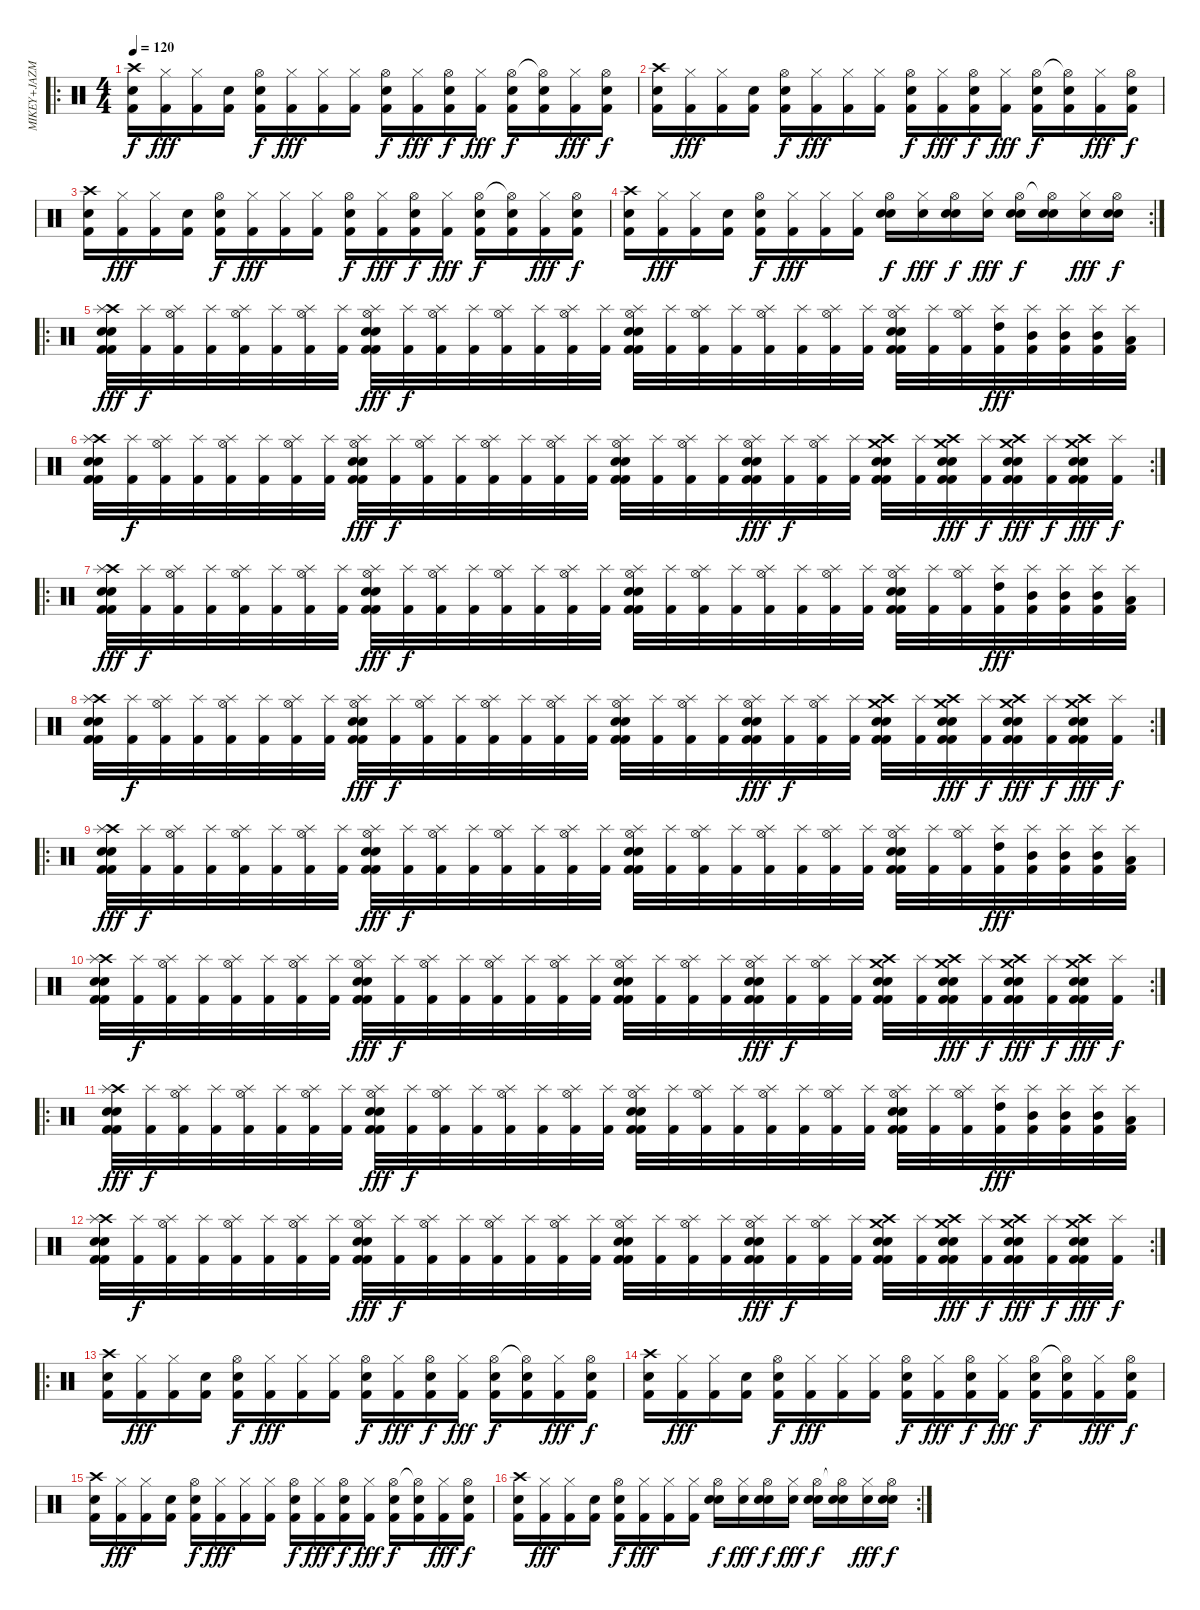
\track ("MIKEY+JAZMO" "MIKEY+JAZM") {instrument percussion}
\staff {score}
\articulation defaults
\ro
\ts (4 4)
\tempo 120
\clef neutral
\ks c
("Crash high (hit)" "Electric Snare (hit)" "Kick (hit) 2").16{dy f} ("Hi-Hat (closed)" "Kick (hit) 2").16{dy fff} ("Hi-Hat (closed)" "Kick (hit) 2").16 ("Snare (hit)" "Kick (hit) 2").16 ("Hi-Hat (open)" "Electric Snare (hit)" "Kick (hit) 2").16{dy f} ("Hi-Hat (closed)" "Kick (hit) 2").16{dy fff} ("Hi-Hat (closed)" "Kick (hit) 2").16 ("Hi-Hat (closed)" "Kick (hit) 2").16 ("Hi-Hat (open)" "Electric Snare (hit)" "Kick (hit) 2").16{dy f} ("Hi-Hat (closed)" "Kick (hit) 2").16{dy fff} ("Hi-Hat (open)" "Electric Snare (hit)" "Kick (hit) 2").16{dy f} ("Hi-Hat (closed)" "Kick (hit) 2").16{dy fff} ("Hi-Hat (open)" "Electric Snare (hit)" "Kick (hit) 2").16{dy f} ("Hi-Hat (open)"{t} "Electric Snare (hit)" "Kick (hit) 2").16 ("Hi-Hat (closed)" "Kick (hit) 2").16{dy fff} ("Hi-Hat (open)" "Electric Snare (hit)" "Kick (hit) 2").16{dy f} |
("Crash high (hit)" "Electric Snare (hit)" "Kick (hit) 2").16 ("Hi-Hat (closed)" "Kick (hit) 2").16{dy fff} ("Hi-Hat (closed)" "Kick (hit) 2").16 ("Snare (hit)" "Kick (hit) 2").16 ("Hi-Hat (open)" "Electric Snare (hit)" "Kick (hit) 2").16{dy f} ("Hi-Hat (closed)" "Kick (hit) 2").16{dy fff} ("Hi-Hat (closed)" "Kick (hit) 2").16 ("Hi-Hat (closed)" "Kick (hit) 2").16 ("Hi-Hat (open)" "Electric Snare (hit)" "Kick (hit) 2").16{dy f} ("Hi-Hat (closed)" "Kick (hit) 2").16{dy fff} ("Hi-Hat (open)" "Electric Snare (hit)" "Kick (hit) 2").16{dy f} ("Hi-Hat (closed)" "Kick (hit) 2").16{dy fff} ("Hi-Hat (open)" "Electric Snare (hit)" "Kick (hit) 2").16{dy f} ("Hi-Hat (open)"{t} "Electric Snare (hit)" "Kick (hit) 2").16 ("Hi-Hat (closed)" "Kick (hit) 2").16{dy fff} ("Hi-Hat (open)" "Electric Snare (hit)" "Kick (hit) 2").16{dy f} |
("Crash high (hit)" "Electric Snare (hit)" "Kick (hit) 2").16 ("Hi-Hat (closed)" "Kick (hit) 2").16{dy fff} ("Hi-Hat (closed)" "Kick (hit) 2").16 ("Snare (hit)" "Kick (hit) 2").16 ("Hi-Hat (open)" "Electric Snare (hit)" "Kick (hit) 2").16{dy f} ("Hi-Hat (closed)" "Kick (hit) 2").16{dy fff} ("Hi-Hat (closed)" "Kick (hit) 2").16 ("Hi-Hat (closed)" "Kick (hit) 2").16 ("Hi-Hat (open)" "Electric Snare (hit)" "Kick (hit) 2").16{dy f} ("Hi-Hat (closed)" "Kick (hit) 2").16{dy fff} ("Hi-Hat (open)" "Electric Snare (hit)" "Kick (hit) 2").16{dy f} ("Hi-Hat (closed)" "Kick (hit) 2").16{dy fff} ("Hi-Hat (open)" "Electric Snare (hit)" "Kick (hit) 2").16{dy f} ("Hi-Hat (open)"{t} "Electric Snare (hit)" "Kick (hit) 2").16 ("Hi-Hat (closed)" "Kick (hit) 2").16{dy fff} ("Hi-Hat (open)" "Electric Snare (hit)" "Kick (hit) 2").16{dy f} |
\rc 2
("Crash high (hit)" "Electric Snare (hit)" "Kick (hit) 2").16 ("Hi-Hat (closed)" "Kick (hit) 2").16{dy fff} ("Hi-Hat (closed)" "Kick (hit) 2").16 ("Snare (hit)" "Kick (hit) 2").16 ("Hi-Hat (open)" "Electric Snare (hit)" "Kick (hit) 2").16{dy f} ("Hi-Hat (closed)" "Kick (hit) 2").16{dy fff} ("Hi-Hat (closed)" "Kick (hit) 2").16 ("Hi-Hat (closed)" "Kick (hit) 2").16 ("Hi-Hat (open)" "Electric Snare (hit)" "Snare (hit) 2").16{dy f} ("Hi-Hat (closed)" "Snare (hit) 2").16{dy fff} ("Hi-Hat (open)" "Electric Snare (hit)" "Snare (hit) 2").16{dy f} ("Hi-Hat (closed)" "Snare (hit) 2").16{dy fff} ("Hi-Hat (open)" "Electric Snare (hit)" "Snare (hit) 2").16{dy f} ("Hi-Hat (open)"{t} "Electric Snare (hit)" "Snare (hit) 2").16 ("Hi-Hat (closed)" "Snare (hit) 2").16{dy fff} ("Hi-Hat (open)" "Electric Snare (hit)" "Snare (hit) 2").16{dy f} |
\ro
("Crash high (hit)" "Splash (hit)" "Electric Snare (hit)" "Electric Snare (hit)" "Kick (hit) 2" "Kick (hit) 2").32{dy fff} ("Splash (hit)" "Kick (hit) 2").32{dy f} ("Hi-Hat (open)" "Splash (hit)" "Kick (hit) 2").32 ("Splash (hit)" "Kick (hit) 2").32 ("Hi-Hat (open)" "Splash (hit)" "Kick (hit) 2").32 ("Splash (hit)" "Kick (hit) 2").32 ("Hi-Hat (open)" "Splash (hit)" "Kick (hit) 2").32 ("Splash (hit)" "Kick (hit) 2").32 ("Hi-Hat (open)" "Splash (hit)" "Electric Snare (hit)" "Electric Snare (hit)" "Kick (hit) 2" "Kick (hit) 2").32{dy fff} ("Splash (hit)" "Kick (hit) 2").32{dy f} ("Hi-Hat (open)" "Splash (hit)" "Kick (hit) 2").32 ("Splash (hit)" "Kick (hit) 2").32 ("Hi-Hat (open)" "Splash (hit)" "Kick (hit) 2").32 ("Splash (hit)" "Kick (hit) 2").32 ("Hi-Hat (open)" "Splash (hit)" "Kick (hit) 2").32 ("Splash (hit)" "Kick (hit) 2").32 ("Hi-Hat (open)" "Splash (hit)" "Electric Snare (hit)" "Electric Snare (hit)" "Kick (hit) 2" "Kick (hit) 2").32 ("Splash (hit)" "Kick (hit) 2").32 ("Hi-Hat (open)" "Splash (hit)" "Kick (hit) 2").32 ("Splash (hit)" "Kick (hit) 2").32 ("Hi-Hat (open)" "Splash (hit)" "Kick (hit) 2").32 ("Splash (hit)" "Kick (hit) 2").32 ("Hi-Hat (open)" "Splash (hit)" "Kick (hit) 2").32 ("Splash (hit)" "Kick (hit) 2").32 ("Hi-Hat (open)" "Splash (hit)" "Electric Snare (hit)" "Electric Snare (hit)" "Kick (hit) 2" "Kick (hit) 2").32 ("Splash (hit)" "Kick (hit) 2").32 ("Hi-Hat (open)" "Splash (hit)" "Kick (hit) 2").32 ("High Tom (hit)" "Splash (hit)" "Kick (hit) 2").32{dy fff} ("Mid Tom (hit)" "Splash (hit)" "Kick (hit) 2").32 ("Mid Tom (hit)" "Splash (hit)" "Kick (hit) 2").32 ("Mid Tom (hit)" "Splash (hit)" "Kick (hit) 2").32 ("Low Tom (hit)" "Splash (hit)" "Kick (hit) 2").32 |
\rc 2
("Crash high (hit)" "Splash (hit)" "Electric Snare (hit)" "Electric Snare (hit)" "Kick (hit) 2" "Kick (hit) 2").32 ("Splash (hit)" "Kick (hit) 2").32{dy f} ("Hi-Hat (open)" "Splash (hit)" "Kick (hit) 2").32 ("Splash (hit)" "Kick (hit) 2").32 ("Hi-Hat (open)" "Splash (hit)" "Kick (hit) 2").32 ("Splash (hit)" "Kick (hit) 2").32 ("Hi-Hat (open)" "Splash (hit)" "Kick (hit) 2").32 ("Splash (hit)" "Kick (hit) 2").32 ("Hi-Hat (open)" "Splash (hit)" "Electric Snare (hit)" "Electric Snare (hit)" "Kick (hit) 2" "Kick (hit) 2").32{dy fff} ("Splash (hit)" "Kick (hit) 2").32{dy f} ("Hi-Hat (open)" "Splash (hit)" "Kick (hit) 2").32 ("Splash (hit)" "Kick (hit) 2").32 ("Hi-Hat (open)" "Splash (hit)" "Kick (hit) 2").32 ("Splash (hit)" "Kick (hit) 2").32 ("Hi-Hat (open)" "Splash (hit)" "Kick (hit) 2").32 ("Splash (hit)" "Kick (hit) 2").32 ("Hi-Hat (open)" "Splash (hit)" "Electric Snare (hit)" "Electric Snare (hit)" "Kick (hit) 2" "Kick (hit) 2").32 ("Splash (hit)" "Kick (hit) 2").32 ("Hi-Hat (open)" "Splash (hit)" "Kick (hit) 2").32 ("Splash (hit)" "Kick (hit) 2").32 ("Hi-Hat (open)" "Splash (hit)" "Electric Snare (hit)" "Electric Snare (hit)" "Kick (hit) 2" "Kick (hit) 2").32{dy fff} ("Splash (hit)" "Kick (hit) 2").32{dy f} ("Hi-Hat (open)" "Splash (hit)" "Kick (hit) 2").32 ("Splash (hit)" "Kick (hit) 2").32 ("Crash medium (hit)" "Crash high (hit)" "Electric Snare (hit)" "Electric Snare (hit)" "Kick (hit) 2" "Kick (hit) 2").32 ("Splash (hit)" "Kick (hit) 2").32 ("Crash medium (hit)" "Crash high (hit)" "Electric Snare (hit)" "Electric Snare (hit)" "Kick (hit) 2" "Kick (hit) 2").32{dy fff} ("Splash (hit)" "Kick (hit) 2").32{dy f} ("Crash medium (hit)" "Crash high (hit)" "Electric Snare (hit)" "Electric Snare (hit)" "Kick (hit) 2" "Kick (hit) 2").32{dy fff} ("Splash (hit)" "Kick (hit) 2").32{dy f} ("Crash medium (hit)" "Crash high (hit)" "Electric Snare (hit)" "Electric Snare (hit)" "Kick (hit) 2" "Kick (hit) 2").32{dy fff} ("Splash (hit)" "Kick (hit) 2").32{dy f} |
\ro
("Crash high (hit)" "Splash (hit)" "Electric Snare (hit)" "Electric Snare (hit)" "Kick (hit) 2" "Kick (hit) 2").32{dy fff} ("Splash (hit)" "Kick (hit) 2").32{dy f} ("Hi-Hat (open)" "Splash (hit)" "Kick (hit) 2").32 ("Splash (hit)" "Kick (hit) 2").32 ("Hi-Hat (open)" "Splash (hit)" "Kick (hit) 2").32 ("Splash (hit)" "Kick (hit) 2").32 ("Hi-Hat (open)" "Splash (hit)" "Kick (hit) 2").32 ("Splash (hit)" "Kick (hit) 2").32 ("Hi-Hat (open)" "Splash (hit)" "Electric Snare (hit)" "Electric Snare (hit)" "Kick (hit) 2" "Kick (hit) 2").32{dy fff} ("Splash (hit)" "Kick (hit) 2").32{dy f} ("Hi-Hat (open)" "Splash (hit)" "Kick (hit) 2").32 ("Splash (hit)" "Kick (hit) 2").32 ("Hi-Hat (open)" "Splash (hit)" "Kick (hit) 2").32 ("Splash (hit)" "Kick (hit) 2").32 ("Hi-Hat (open)" "Splash (hit)" "Kick (hit) 2").32 ("Splash (hit)" "Kick (hit) 2").32 ("Hi-Hat (open)" "Splash (hit)" "Electric Snare (hit)" "Electric Snare (hit)" "Kick (hit) 2" "Kick (hit) 2").32 ("Splash (hit)" "Kick (hit) 2").32 ("Hi-Hat (open)" "Splash (hit)" "Kick (hit) 2").32 ("Splash (hit)" "Kick (hit) 2").32 ("Hi-Hat (open)" "Splash (hit)" "Kick (hit) 2").32 ("Splash (hit)" "Kick (hit) 2").32 ("Hi-Hat (open)" "Splash (hit)" "Kick (hit) 2").32 ("Splash (hit)" "Kick (hit) 2").32 ("Hi-Hat (open)" "Splash (hit)" "Electric Snare (hit)" "Electric Snare (hit)" "Kick (hit) 2" "Kick (hit) 2").32 ("Splash (hit)" "Kick (hit) 2").32 ("Hi-Hat (open)" "Splash (hit)" "Kick (hit) 2").32 ("High Tom (hit)" "Splash (hit)" "Kick (hit) 2").32{dy fff} ("Mid Tom (hit)" "Splash (hit)" "Kick (hit) 2").32 ("Mid Tom (hit)" "Splash (hit)" "Kick (hit) 2").32 ("Mid Tom (hit)" "Splash (hit)" "Kick (hit) 2").32 ("Low Tom (hit)" "Splash (hit)" "Kick (hit) 2").32 |
\rc 2
("Crash high (hit)" "Splash (hit)" "Electric Snare (hit)" "Electric Snare (hit)" "Kick (hit) 2" "Kick (hit) 2").32 ("Splash (hit)" "Kick (hit) 2").32{dy f} ("Hi-Hat (open)" "Splash (hit)" "Kick (hit) 2").32 ("Splash (hit)" "Kick (hit) 2").32 ("Hi-Hat (open)" "Splash (hit)" "Kick (hit) 2").32 ("Splash (hit)" "Kick (hit) 2").32 ("Hi-Hat (open)" "Splash (hit)" "Kick (hit) 2").32 ("Splash (hit)" "Kick (hit) 2").32 ("Hi-Hat (open)" "Splash (hit)" "Electric Snare (hit)" "Electric Snare (hit)" "Kick (hit) 2" "Kick (hit) 2").32{dy fff} ("Splash (hit)" "Kick (hit) 2").32{dy f} ("Hi-Hat (open)" "Splash (hit)" "Kick (hit) 2").32 ("Splash (hit)" "Kick (hit) 2").32 ("Hi-Hat (open)" "Splash (hit)" "Kick (hit) 2").32 ("Splash (hit)" "Kick (hit) 2").32 ("Hi-Hat (open)" "Splash (hit)" "Kick (hit) 2").32 ("Splash (hit)" "Kick (hit) 2").32 ("Hi-Hat (open)" "Splash (hit)" "Electric Snare (hit)" "Electric Snare (hit)" "Kick (hit) 2" "Kick (hit) 2").32 ("Splash (hit)" "Kick (hit) 2").32 ("Hi-Hat (open)" "Splash (hit)" "Kick (hit) 2").32 ("Splash (hit)" "Kick (hit) 2").32 ("Hi-Hat (open)" "Splash (hit)" "Electric Snare (hit)" "Electric Snare (hit)" "Kick (hit) 2" "Kick (hit) 2").32{dy fff} ("Splash (hit)" "Kick (hit) 2").32{dy f} ("Hi-Hat (open)" "Splash (hit)" "Kick (hit) 2").32 ("Splash (hit)" "Kick (hit) 2").32 ("Crash medium (hit)" "Crash high (hit)" "Electric Snare (hit)" "Electric Snare (hit)" "Kick (hit) 2" "Kick (hit) 2").32 ("Splash (hit)" "Kick (hit) 2").32 ("Crash medium (hit)" "Crash high (hit)" "Electric Snare (hit)" "Electric Snare (hit)" "Kick (hit) 2" "Kick (hit) 2").32{dy fff} ("Splash (hit)" "Kick (hit) 2").32{dy f} ("Crash medium (hit)" "Crash high (hit)" "Electric Snare (hit)" "Electric Snare (hit)" "Kick (hit) 2" "Kick (hit) 2").32{dy fff} ("Splash (hit)" "Kick (hit) 2").32{dy f} ("Crash medium (hit)" "Crash high (hit)" "Electric Snare (hit)" "Electric Snare (hit)" "Kick (hit) 2" "Kick (hit) 2").32{dy fff} ("Splash (hit)" "Kick (hit) 2").32{dy f} |
\ro
("Crash high (hit)" "Splash (hit)" "Electric Snare (hit)" "Electric Snare (hit)" "Kick (hit) 2" "Kick (hit) 2").32{dy fff} ("Splash (hit)" "Kick (hit) 2").32{dy f} ("Hi-Hat (open)" "Splash (hit)" "Kick (hit) 2").32 ("Splash (hit)" "Kick (hit) 2").32 ("Hi-Hat (open)" "Splash (hit)" "Kick (hit) 2").32 ("Splash (hit)" "Kick (hit) 2").32 ("Hi-Hat (open)" "Splash (hit)" "Kick (hit) 2").32 ("Splash (hit)" "Kick (hit) 2").32 ("Hi-Hat (open)" "Splash (hit)" "Electric Snare (hit)" "Electric Snare (hit)" "Kick (hit) 2" "Kick (hit) 2").32{dy fff} ("Splash (hit)" "Kick (hit) 2").32{dy f} ("Hi-Hat (open)" "Splash (hit)" "Kick (hit) 2").32 ("Splash (hit)" "Kick (hit) 2").32 ("Hi-Hat (open)" "Splash (hit)" "Kick (hit) 2").32 ("Splash (hit)" "Kick (hit) 2").32 ("Hi-Hat (open)" "Splash (hit)" "Kick (hit) 2").32 ("Splash (hit)" "Kick (hit) 2").32 ("Hi-Hat (open)" "Splash (hit)" "Electric Snare (hit)" "Electric Snare (hit)" "Kick (hit) 2" "Kick (hit) 2").32 ("Splash (hit)" "Kick (hit) 2").32 ("Hi-Hat (open)" "Splash (hit)" "Kick (hit) 2").32 ("Splash (hit)" "Kick (hit) 2").32 ("Hi-Hat (open)" "Splash (hit)" "Kick (hit) 2").32 ("Splash (hit)" "Kick (hit) 2").32 ("Hi-Hat (open)" "Splash (hit)" "Kick (hit) 2").32 ("Splash (hit)" "Kick (hit) 2").32 ("Hi-Hat (open)" "Splash (hit)" "Electric Snare (hit)" "Electric Snare (hit)" "Kick (hit) 2" "Kick (hit) 2").32 ("Splash (hit)" "Kick (hit) 2").32 ("Hi-Hat (open)" "Splash (hit)" "Kick (hit) 2").32 ("High Tom (hit)" "Splash (hit)" "Kick (hit) 2").32{dy fff} ("Mid Tom (hit)" "Splash (hit)" "Kick (hit) 2").32 ("Mid Tom (hit)" "Splash (hit)" "Kick (hit) 2").32 ("Mid Tom (hit)" "Splash (hit)" "Kick (hit) 2").32 ("Low Tom (hit)" "Splash (hit)" "Kick (hit) 2").32 |
\rc 2
("Crash high (hit)" "Splash (hit)" "Electric Snare (hit)" "Electric Snare (hit)" "Kick (hit) 2" "Kick (hit) 2").32 ("Splash (hit)" "Kick (hit) 2").32{dy f} ("Hi-Hat (open)" "Splash (hit)" "Kick (hit) 2").32 ("Splash (hit)" "Kick (hit) 2").32 ("Hi-Hat (open)" "Splash (hit)" "Kick (hit) 2").32 ("Splash (hit)" "Kick (hit) 2").32 ("Hi-Hat (open)" "Splash (hit)" "Kick (hit) 2").32 ("Splash (hit)" "Kick (hit) 2").32 ("Hi-Hat (open)" "Splash (hit)" "Electric Snare (hit)" "Electric Snare (hit)" "Kick (hit) 2" "Kick (hit) 2").32{dy fff} ("Splash (hit)" "Kick (hit) 2").32{dy f} ("Hi-Hat (open)" "Splash (hit)" "Kick (hit) 2").32 ("Splash (hit)" "Kick (hit) 2").32 ("Hi-Hat (open)" "Splash (hit)" "Kick (hit) 2").32 ("Splash (hit)" "Kick (hit) 2").32 ("Hi-Hat (open)" "Splash (hit)" "Kick (hit) 2").32 ("Splash (hit)" "Kick (hit) 2").32 ("Hi-Hat (open)" "Splash (hit)" "Electric Snare (hit)" "Electric Snare (hit)" "Kick (hit) 2" "Kick (hit) 2").32 ("Splash (hit)" "Kick (hit) 2").32 ("Hi-Hat (open)" "Splash (hit)" "Kick (hit) 2").32 ("Splash (hit)" "Kick (hit) 2").32 ("Hi-Hat (open)" "Splash (hit)" "Electric Snare (hit)" "Electric Snare (hit)" "Kick (hit) 2" "Kick (hit) 2").32{dy fff} ("Splash (hit)" "Kick (hit) 2").32{dy f} ("Hi-Hat (open)" "Splash (hit)" "Kick (hit) 2").32 ("Splash (hit)" "Kick (hit) 2").32 ("Crash medium (hit)" "Crash high (hit)" "Electric Snare (hit)" "Electric Snare (hit)" "Kick (hit) 2" "Kick (hit) 2").32 ("Splash (hit)" "Kick (hit) 2").32 ("Crash medium (hit)" "Crash high (hit)" "Electric Snare (hit)" "Electric Snare (hit)" "Kick (hit) 2" "Kick (hit) 2").32{dy fff} ("Splash (hit)" "Kick (hit) 2").32{dy f} ("Crash medium (hit)" "Crash high (hit)" "Electric Snare (hit)" "Electric Snare (hit)" "Kick (hit) 2" "Kick (hit) 2").32{dy fff} ("Splash (hit)" "Kick (hit) 2").32{dy f} ("Crash medium (hit)" "Crash high (hit)" "Electric Snare (hit)" "Electric Snare (hit)" "Kick (hit) 2" "Kick (hit) 2").32{dy fff} ("Splash (hit)" "Kick (hit) 2").32{dy f} |
\ro
("Crash high (hit)" "Splash (hit)" "Electric Snare (hit)" "Electric Snare (hit)" "Kick (hit) 2" "Kick (hit) 2").32{dy fff} ("Splash (hit)" "Kick (hit) 2").32{dy f} ("Hi-Hat (open)" "Splash (hit)" "Kick (hit) 2").32 ("Splash (hit)" "Kick (hit) 2").32 ("Hi-Hat (open)" "Splash (hit)" "Kick (hit) 2").32 ("Splash (hit)" "Kick (hit) 2").32 ("Hi-Hat (open)" "Splash (hit)" "Kick (hit) 2").32 ("Splash (hit)" "Kick (hit) 2").32 ("Hi-Hat (open)" "Splash (hit)" "Electric Snare (hit)" "Electric Snare (hit)" "Kick (hit) 2" "Kick (hit) 2").32{dy fff} ("Splash (hit)" "Kick (hit) 2").32{dy f} ("Hi-Hat (open)" "Splash (hit)" "Kick (hit) 2").32 ("Splash (hit)" "Kick (hit) 2").32 ("Hi-Hat (open)" "Splash (hit)" "Kick (hit) 2").32 ("Splash (hit)" "Kick (hit) 2").32 ("Hi-Hat (open)" "Splash (hit)" "Kick (hit) 2").32 ("Splash (hit)" "Kick (hit) 2").32 ("Hi-Hat (open)" "Splash (hit)" "Electric Snare (hit)" "Electric Snare (hit)" "Kick (hit) 2" "Kick (hit) 2").32 ("Splash (hit)" "Kick (hit) 2").32 ("Hi-Hat (open)" "Splash (hit)" "Kick (hit) 2").32 ("Splash (hit)" "Kick (hit) 2").32 ("Hi-Hat (open)" "Splash (hit)" "Kick (hit) 2").32 ("Splash (hit)" "Kick (hit) 2").32 ("Hi-Hat (open)" "Splash (hit)" "Kick (hit) 2").32 ("Splash (hit)" "Kick (hit) 2").32 ("Hi-Hat (open)" "Splash (hit)" "Electric Snare (hit)" "Electric Snare (hit)" "Kick (hit) 2" "Kick (hit) 2").32 ("Splash (hit)" "Kick (hit) 2").32 ("Hi-Hat (open)" "Splash (hit)" "Kick (hit) 2").32 ("High Tom (hit)" "Splash (hit)" "Kick (hit) 2").32{dy fff} ("Mid Tom (hit)" "Splash (hit)" "Kick (hit) 2").32 ("Mid Tom (hit)" "Splash (hit)" "Kick (hit) 2").32 ("Mid Tom (hit)" "Splash (hit)" "Kick (hit) 2").32 ("Low Tom (hit)" "Splash (hit)" "Kick (hit) 2").32 |
\rc 2
("Crash high (hit)" "Splash (hit)" "Electric Snare (hit)" "Electric Snare (hit)" "Kick (hit) 2" "Kick (hit) 2").32 ("Splash (hit)" "Kick (hit) 2").32{dy f} ("Hi-Hat (open)" "Splash (hit)" "Kick (hit) 2").32 ("Splash (hit)" "Kick (hit) 2").32 ("Hi-Hat (open)" "Splash (hit)" "Kick (hit) 2").32 ("Splash (hit)" "Kick (hit) 2").32 ("Hi-Hat (open)" "Splash (hit)" "Kick (hit) 2").32 ("Splash (hit)" "Kick (hit) 2").32 ("Hi-Hat (open)" "Splash (hit)" "Electric Snare (hit)" "Electric Snare (hit)" "Kick (hit) 2" "Kick (hit) 2").32{dy fff} ("Splash (hit)" "Kick (hit) 2").32{dy f} ("Hi-Hat (open)" "Splash (hit)" "Kick (hit) 2").32 ("Splash (hit)" "Kick (hit) 2").32 ("Hi-Hat (open)" "Splash (hit)" "Kick (hit) 2").32 ("Splash (hit)" "Kick (hit) 2").32 ("Hi-Hat (open)" "Splash (hit)" "Kick (hit) 2").32 ("Splash (hit)" "Kick (hit) 2").32 ("Hi-Hat (open)" "Splash (hit)" "Electric Snare (hit)" "Electric Snare (hit)" "Kick (hit) 2" "Kick (hit) 2").32 ("Splash (hit)" "Kick (hit) 2").32 ("Hi-Hat (open)" "Splash (hit)" "Kick (hit) 2").32 ("Splash (hit)" "Kick (hit) 2").32 ("Hi-Hat (open)" "Splash (hit)" "Electric Snare (hit)" "Electric Snare (hit)" "Kick (hit) 2" "Kick (hit) 2").32{dy fff} ("Splash (hit)" "Kick (hit) 2").32{dy f} ("Hi-Hat (open)" "Splash (hit)" "Kick (hit) 2").32 ("Splash (hit)" "Kick (hit) 2").32 ("Crash medium (hit)" "Crash high (hit)" "Electric Snare (hit)" "Electric Snare (hit)" "Kick (hit) 2" "Kick (hit) 2").32 ("Splash (hit)" "Kick (hit) 2").32 ("Crash medium (hit)" "Crash high (hit)" "Electric Snare (hit)" "Electric Snare (hit)" "Kick (hit) 2" "Kick (hit) 2").32{dy fff} ("Splash (hit)" "Kick (hit) 2").32{dy f} ("Crash medium (hit)" "Crash high (hit)" "Electric Snare (hit)" "Electric Snare (hit)" "Kick (hit) 2" "Kick (hit) 2").32{dy fff} ("Splash (hit)" "Kick (hit) 2").32{dy f} ("Crash medium (hit)" "Crash high (hit)" "Electric Snare (hit)" "Electric Snare (hit)" "Kick (hit) 2" "Kick (hit) 2").32{dy fff} ("Splash (hit)" "Kick (hit) 2").32{dy f} |
\ro
("Crash high (hit)" "Electric Snare (hit)" "Kick (hit) 2").16 ("Hi-Hat (closed)" "Kick (hit) 2").16{dy fff} ("Hi-Hat (closed)" "Kick (hit) 2").16 ("Snare (hit)" "Kick (hit) 2").16 ("Hi-Hat (open)" "Electric Snare (hit)" "Kick (hit) 2").16{dy f} ("Hi-Hat (closed)" "Kick (hit) 2").16{dy fff} ("Hi-Hat (closed)" "Kick (hit) 2").16 ("Hi-Hat (closed)" "Kick (hit) 2").16 ("Hi-Hat (open)" "Electric Snare (hit)" "Kick (hit) 2").16{dy f} ("Hi-Hat (closed)" "Kick (hit) 2").16{dy fff} ("Hi-Hat (open)" "Electric Snare (hit)" "Kick (hit) 2").16{dy f} ("Hi-Hat (closed)" "Kick (hit) 2").16{dy fff} ("Hi-Hat (open)" "Electric Snare (hit)" "Kick (hit) 2").16{dy f} ("Hi-Hat (open)"{t} "Electric Snare (hit)" "Kick (hit) 2").16 ("Hi-Hat (closed)" "Kick (hit) 2").16{dy fff} ("Hi-Hat (open)" "Electric Snare (hit)" "Kick (hit) 2").16{dy f} |
("Crash high (hit)" "Electric Snare (hit)" "Kick (hit) 2").16 ("Hi-Hat (closed)" "Kick (hit) 2").16{dy fff} ("Hi-Hat (closed)" "Kick (hit) 2").16 ("Snare (hit)" "Kick (hit) 2").16 ("Hi-Hat (open)" "Electric Snare (hit)" "Kick (hit) 2").16{dy f} ("Hi-Hat (closed)" "Kick (hit) 2").16{dy fff} ("Hi-Hat (closed)" "Kick (hit) 2").16 ("Hi-Hat (closed)" "Kick (hit) 2").16 ("Hi-Hat (open)" "Electric Snare (hit)" "Kick (hit) 2").16{dy f} ("Hi-Hat (closed)" "Kick (hit) 2").16{dy fff} ("Hi-Hat (open)" "Electric Snare (hit)" "Kick (hit) 2").16{dy f} ("Hi-Hat (closed)" "Kick (hit) 2").16{dy fff} ("Hi-Hat (open)" "Electric Snare (hit)" "Kick (hit) 2").16{dy f} ("Hi-Hat (open)"{t} "Electric Snare (hit)" "Kick (hit) 2").16 ("Hi-Hat (closed)" "Kick (hit) 2").16{dy fff} ("Hi-Hat (open)" "Electric Snare (hit)" "Kick (hit) 2").16{dy f} |
("Crash high (hit)" "Electric Snare (hit)" "Kick (hit) 2").16 ("Hi-Hat (closed)" "Kick (hit) 2").16{dy fff} ("Hi-Hat (closed)" "Kick (hit) 2").16 ("Snare (hit)" "Kick (hit) 2").16 ("Hi-Hat (open)" "Electric Snare (hit)" "Kick (hit) 2").16{dy f} ("Hi-Hat (closed)" "Kick (hit) 2").16{dy fff} ("Hi-Hat (closed)" "Kick (hit) 2").16 ("Hi-Hat (closed)" "Kick (hit) 2").16 ("Hi-Hat (open)" "Electric Snare (hit)" "Kick (hit) 2").16{dy f} ("Hi-Hat (closed)" "Kick (hit) 2").16{dy fff} ("Hi-Hat (open)" "Electric Snare (hit)" "Kick (hit) 2").16{dy f} ("Hi-Hat (closed)" "Kick (hit) 2").16{dy fff} ("Hi-Hat (open)" "Electric Snare (hit)" "Kick (hit) 2").16{dy f} ("Hi-Hat (open)"{t} "Electric Snare (hit)" "Kick (hit) 2").16 ("Hi-Hat (closed)" "Kick (hit) 2").16{dy fff} ("Hi-Hat (open)" "Electric Snare (hit)" "Kick (hit) 2").16{dy f} |
\rc 2
("Crash high (hit)" "Electric Snare (hit)" "Kick (hit) 2").16 ("Hi-Hat (closed)" "Kick (hit) 2").16{dy fff} ("Hi-Hat (closed)" "Kick (hit) 2").16 ("Snare (hit)" "Kick (hit) 2").16 ("Hi-Hat (open)" "Electric Snare (hit)" "Kick (hit) 2").16{dy f} ("Hi-Hat (closed)" "Kick (hit) 2").16{dy fff} ("Hi-Hat (closed)" "Kick (hit) 2").16 ("Hi-Hat (closed)" "Kick (hit) 2").16 ("Hi-Hat (open)" "Electric Snare (hit)" "Snare (hit) 2").16{dy f} ("Hi-Hat (closed)" "Snare (hit) 2").16{dy fff} ("Hi-Hat (open)" "Electric Snare (hit)" "Snare (hit) 2").16{dy f} ("Hi-Hat (closed)" "Snare (hit) 2").16{dy fff} ("Hi-Hat (open)" "Electric Snare (hit)" "Snare (hit) 2").16{dy f} ("Hi-Hat (open)"{t} "Electric Snare (hit)" "Snare (hit) 2").16 ("Hi-Hat (closed)" "Snare (hit) 2").16{dy fff} ("Hi-Hat (open)" "Electric Snare (hit)" "Snare (hit) 2").16{dy f}
